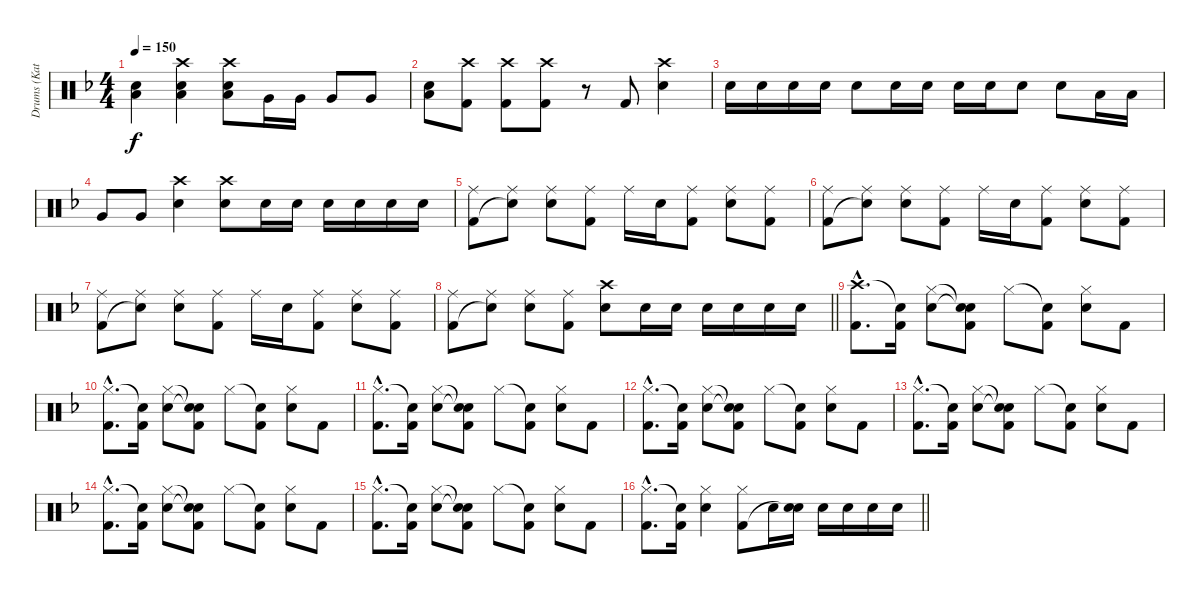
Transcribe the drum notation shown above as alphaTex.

\track ("Drums (Katsuji)" "Drums (Kat") {instrument percussion}
\staff {score}
\articulation defaults
\ts (4 4)
\tempo 150
\clef neutral
\ks f
("Snare (hit) 2" "Low Tom (hit)").4{dy f} ("Crash high (hit)" "Snare (hit) 2" "Low Tom (hit)").4 ("Crash high (hit)" "Snare (hit) 2" "Low Tom (hit)").8 "Very Low Tom (hit)".16 "Very Low Tom (hit)".16 "Very Low Tom (hit)".8 "Very Low Tom (hit)".8 |
("Snare (hit) 2" "Low Tom (hit)").8 ("Crash high (hit)" "Kick (hit) 2").8 ("Crash high (hit)" "Kick (hit) 2").8 ("Crash high (hit)" "Kick (hit) 2").8 r.8 "Kick (hit) 2".8 ("Crash high (hit)" "Snare (hit) 2").4 |
"Snare (hit) 2".16 "Snare (hit) 2".16 "Snare (hit) 2".16 "Snare (hit) 2".16 "Snare (hit) 2".8 "Snare (hit) 2".16 "Snare (hit) 2".16 "Snare (hit) 2".16 "Snare (hit) 2".16 "Snare (hit) 2".8 "Snare (hit) 2".8 "Low Tom (hit)".16 "Low Tom (hit)".16 |
"Very Low Tom (hit)".8 "Very Low Tom (hit)".8 ("Crash high (hit)" "Snare (hit) 2").4 ("Crash high (hit)" "Snare (hit) 2").8 "Snare (hit) 2".16 "Snare (hit) 2".16 "Snare (hit) 2".16 "Snare (hit) 2".16 "Snare (hit) 2".16 "Snare (hit) 2".16 |
("Ride (middle)" "Kick (hit) 2").8 ("Ride (middle)" "Snare (hit)"{t}).8 ("Ride (middle)" "Snare (hit) 2").8 ("Ride (middle)" "Kick (hit) 2").8 "Ride (middle)".16 "Snare (hit) 2".16 ("Ride (middle)" "Kick (hit) 2").8 ("Ride (middle)" "Snare (hit) 2").8 ("Ride (middle)" "Kick (hit) 2").8 |
("Ride (middle)" "Kick (hit) 2").8 ("Ride (middle)" "Snare (hit)"{t}).8 ("Ride (middle)" "Snare (hit) 2").8 ("Ride (middle)" "Kick (hit) 2").8 "Ride (middle)".16 "Snare (hit) 2".16 ("Ride (middle)" "Kick (hit) 2").8 ("Ride (middle)" "Snare (hit) 2").8 ("Ride (middle)" "Kick (hit) 2").8 |
("Ride (middle)" "Kick (hit) 2").8 ("Ride (middle)" "Snare (hit)"{t}).8 ("Ride (middle)" "Snare (hit) 2").8 ("Ride (middle)" "Kick (hit) 2").8 "Ride (middle)".16 "Snare (hit) 2".16 ("Ride (middle)" "Kick (hit) 2").8 ("Ride (middle)" "Snare (hit) 2").8 ("Ride (middle)" "Kick (hit) 2").8 |
\barLineRight lightlight
("Ride (middle)" "Kick (hit) 2").8 ("Ride (middle)" "Snare (hit)"{t}).8 ("Ride (middle)" "Snare (hit) 2").8 ("Ride (middle)" "Kick (hit) 2").8 ("Crash high (hit)" "Snare (hit) 2").8 "Snare (hit) 2".16 "Snare (hit) 2".16 "Snare (hit) 2".16 "Snare (hit) 2".16 "Snare (hit) 2".16 "Snare (hit) 2".16 |
("Crash high (hit)"{hac} "Kick (hit) 2"{hac}).8{d} ("Snare (hit)"{t} "Kick (hit) 2").16 ("Hi-Hat (closed)" "Snare (hit) 2").8 ("Snare (hit)"{t} "Snare (hit)"{t} "Kick (hit) 2").8 "Hi-Hat (closed)".8 ("Snare (hit)"{t} "Kick (hit) 2").8 ("Hi-Hat (closed)" "Snare (hit) 2").8 "Kick (hit) 2".8 |
("Hi-Hat (closed)"{hac} "Kick (hit) 2"{hac}).8{d} ("Snare (hit)"{t} "Kick (hit) 2").16 ("Hi-Hat (closed)" "Snare (hit) 2").8 ("Snare (hit)"{t} "Snare (hit)"{t} "Kick (hit) 2").8 "Hi-Hat (closed)".8 ("Snare (hit)"{t} "Kick (hit) 2").8 ("Hi-Hat (closed)" "Snare (hit) 2").8 "Kick (hit) 2".8 |
("Hi-Hat (closed)"{hac} "Kick (hit) 2"{hac}).8{d} ("Snare (hit)"{t} "Kick (hit) 2").16 ("Hi-Hat (closed)" "Snare (hit) 2").8 ("Snare (hit)"{t} "Snare (hit)"{t} "Kick (hit) 2").8 "Hi-Hat (closed)".8 ("Snare (hit)"{t} "Kick (hit) 2").8 ("Hi-Hat (closed)" "Snare (hit) 2").8 "Kick (hit) 2".8 |
("Hi-Hat (closed)"{hac} "Kick (hit) 2"{hac}).8{d} ("Snare (hit)"{t} "Kick (hit) 2").16 ("Hi-Hat (closed)" "Snare (hit) 2").8 ("Snare (hit)"{t} "Snare (hit)"{t} "Kick (hit) 2").8 "Hi-Hat (closed)".8 ("Snare (hit)"{t} "Kick (hit) 2").8 ("Hi-Hat (closed)" "Snare (hit) 2").8 "Kick (hit) 2".8 |
("Hi-Hat (closed)"{hac} "Kick (hit) 2"{hac}).8{d} ("Snare (hit)"{t} "Kick (hit) 2").16 ("Hi-Hat (closed)" "Snare (hit) 2").8 ("Snare (hit)"{t} "Snare (hit)"{t} "Kick (hit) 2").8 "Hi-Hat (closed)".8 ("Snare (hit)"{t} "Kick (hit) 2").8 ("Hi-Hat (closed)" "Snare (hit) 2").8 "Kick (hit) 2".8 |
("Hi-Hat (closed)"{hac} "Kick (hit) 2"{hac}).8{d} ("Snare (hit)"{t} "Kick (hit) 2").16 ("Hi-Hat (closed)" "Snare (hit) 2").8 ("Snare (hit)"{t} "Snare (hit)"{t} "Kick (hit) 2").8 "Hi-Hat (closed)".8 ("Snare (hit)"{t} "Kick (hit) 2").8 ("Hi-Hat (closed)" "Snare (hit) 2").8 "Kick (hit) 2".8 |
("Hi-Hat (closed)"{hac} "Kick (hit) 2"{hac}).8{d} ("Snare (hit)"{t} "Kick (hit) 2").16 ("Hi-Hat (closed)" "Snare (hit) 2").8 ("Snare (hit)"{t} "Snare (hit)"{t} "Kick (hit) 2").8 "Hi-Hat (closed)".8 ("Snare (hit)"{t} "Kick (hit) 2").8 ("Hi-Hat (closed)" "Snare (hit) 2").8 "Kick (hit) 2".8 |
\barLineRight lightlight
("Hi-Hat (closed)"{hac} "Kick (hit) 2"{hac}).8{d} ("Snare (hit)"{t} "Kick (hit) 2").16 ("Hi-Hat (closed)" "Snare (hit) 2").4 ("Hi-Hat (closed)" "Kick (hit) 2").8 "Snare (hit) 2".16 ("Snare (hit) 2" "Snare (hit)"{t}).16 "Snare (hit) 2".16 "Snare (hit) 2".16 "Snare (hit) 2".16 "Snare (hit) 2".16
